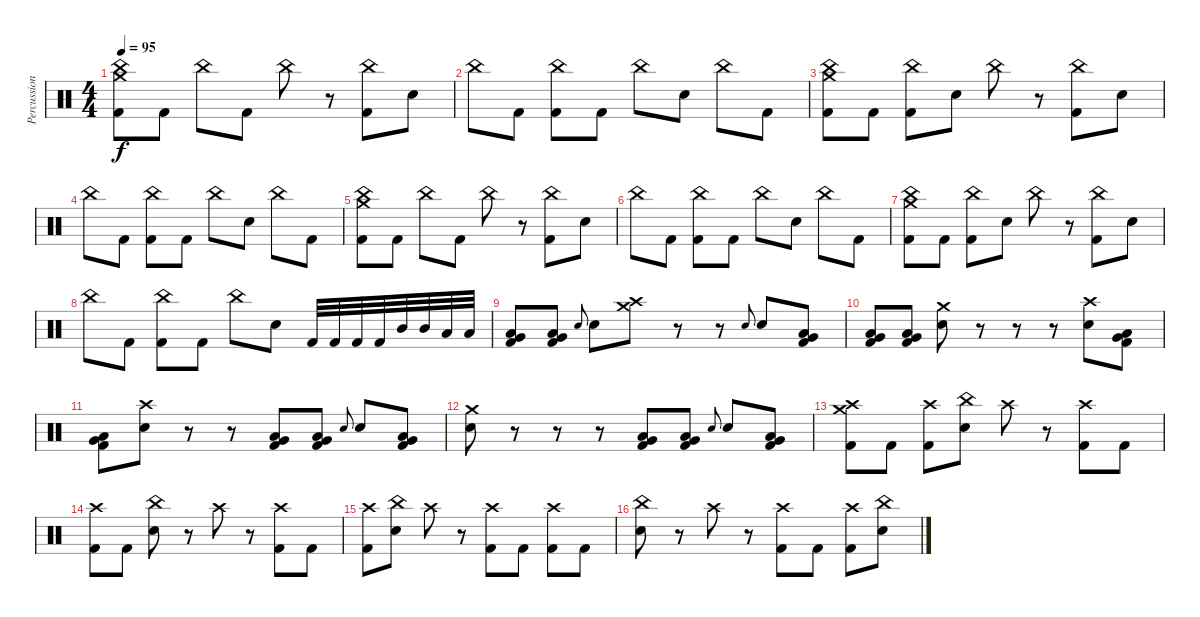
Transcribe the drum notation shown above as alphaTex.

\track ("Percussion" "Percussion") {instrument percussion}
\staff {score}
\articulation defaults
\ts (4 4)
\tempo 95
\clef neutral
\ks c
("China (hit)" "Crash medium (hit)" "Kick (hit) 2").8{dy f} "Kick (hit) 2".8 "China (hit)".8 "Kick (hit) 2".8 "China (hit)".8 r.8 ("China (hit)" "Kick (hit) 2").8 "Electric Snare (hit)".8 |
"China (hit)".8 "Kick (hit) 2".8 ("China (hit)" "Kick (hit) 2").8 "Kick (hit) 2".8 "China (hit)".8 "Electric Snare (hit)".8 "China (hit)".8 "Kick (hit) 2".8 |
("China (hit)" "Crash medium (hit)" "Kick (hit) 2").8 "Kick (hit) 2".8 ("China (hit)" "Kick (hit) 2").8 "Electric Snare (hit)".8 "China (hit)".8 r.8 ("China (hit)" "Kick (hit) 2").8 "Electric Snare (hit)".8 |
"China (hit)".8 "Kick (hit) 2".8 ("China (hit)" "Kick (hit) 2").8 "Kick (hit) 2".8 "China (hit)".8 "Electric Snare (hit)".8 "China (hit)".8 "Kick (hit) 2".8 |
("China (hit)" "Crash medium (hit)" "Kick (hit) 2").8 "Kick (hit) 2".8 "China (hit)".8 "Kick (hit) 2".8 "China (hit)".8 r.8 ("China (hit)" "Kick (hit) 2").8 "Electric Snare (hit)".8 |
"China (hit)".8 "Kick (hit) 2".8 ("China (hit)" "Kick (hit) 2").8 "Kick (hit) 2".8 "China (hit)".8 "Electric Snare (hit)".8 "China (hit)".8 "Kick (hit) 2".8 |
("China (hit)" "Crash medium (hit)" "Kick (hit) 2").8 "Kick (hit) 2".8 ("China (hit)" "Kick (hit) 2").8 "Electric Snare (hit)".8 "China (hit)".8 r.8 ("China (hit)" "Kick (hit) 2").8 "Electric Snare (hit)".8 |
"China (hit)".8 "Kick (hit) 2".8 ("China (hit)" "Kick (hit) 2").8 "Kick (hit) 2".8 "China (hit)".8 "Electric Snare (hit)".8 "Kick (hit) 2".32 "Kick (hit) 2".32 "Kick (hit) 2".32 "Kick (hit) 2".32 "Mid Tom (hit)".32 "Mid Tom (hit)".32 "Low Tom (hit)".32 "Low Tom (hit)".32 |
("Very Low Tom (hit)" "Low Floor Tom (hit)" "Kick (hit) 2").8 ("Very Low Tom (hit)" "Low Floor Tom (hit)" "Kick (hit) 2").8 "Electric Snare (hit)".8{gr onbeat} "Electric Snare (hit)".8 ("Crash medium (hit)" "Crash high (hit)").8 r.8 r.8 "Electric Snare (hit)".8{gr onbeat} "Electric Snare (hit)".8 ("Very Low Tom (hit)" "Low Floor Tom (hit)" "Kick (hit) 2").8 |
("Very Low Tom (hit)" "Low Floor Tom (hit)" "Kick (hit) 2").8 ("Very Low Tom (hit)" "Low Floor Tom (hit)" "Kick (hit) 2").8 ("Crash medium (hit)" "Electric Snare (hit)").8 r.8 r.8 r.8 ("Crash high (hit)" "Electric Snare (hit)").8 ("Very Low Tom (hit)" "Low Floor Tom (hit)" "Kick (hit) 2").8 |
("Very Low Tom (hit)" "Low Floor Tom (hit)" "Kick (hit) 2").8 ("Crash high (hit)" "Electric Snare (hit)").8 r.8 r.8 ("Very Low Tom (hit)" "Low Floor Tom (hit)" "Kick (hit) 2").8 ("Very Low Tom (hit)" "Low Floor Tom (hit)" "Kick (hit) 2").8 "Electric Snare (hit)".8{gr onbeat} "Electric Snare (hit)".8 ("Very Low Tom (hit)" "Low Floor Tom (hit)" "Kick (hit) 2").8 |
("Crash medium (hit)" "Electric Snare (hit)").8 r.8 r.8 r.8 ("Very Low Tom (hit)" "Low Floor Tom (hit)" "Kick (hit) 2").8 ("Very Low Tom (hit)" "Low Floor Tom (hit)" "Kick (hit) 2").8 "Electric Snare (hit)".8{gr onbeat} "Electric Snare (hit)".8 ("Very Low Tom (hit)" "Low Floor Tom (hit)" "Kick (hit) 2").8 |
("Crash medium (hit)" "Crash high (hit)" "Kick (hit) 2").8 "Kick (hit) 2".8 ("Crash high (hit)" "Kick (hit) 2").8 ("China (hit)" "Electric Snare (hit)").8 "Crash high (hit)".8 r.8 ("Crash high (hit)" "Kick (hit) 2").8 "Kick (hit) 2".8 |
("Crash high (hit)" "Kick (hit) 2").8 "Kick (hit) 2".8 ("China (hit)" "Electric Snare (hit)").8 r.8 "Crash high (hit)".8 r.8 ("Crash high (hit)" "Kick (hit) 2").8 "Kick (hit) 2".8 |
("Crash high (hit)" "Kick (hit) 2").8 ("China (hit)" "Electric Snare (hit)").8 "Crash high (hit)".8 r.8 ("Crash high (hit)" "Kick (hit) 2").8 "Kick (hit) 2".8 ("Crash high (hit)" "Kick (hit) 2").8 "Kick (hit) 2".8 |
("China (hit)" "Electric Snare (hit)").8 r.8 "Crash high (hit)".8 r.8 ("Crash high (hit)" "Kick (hit) 2").8 "Kick (hit) 2".8 ("Crash high (hit)" "Kick (hit) 2").8 ("China (hit)" "Electric Snare (hit)").8
